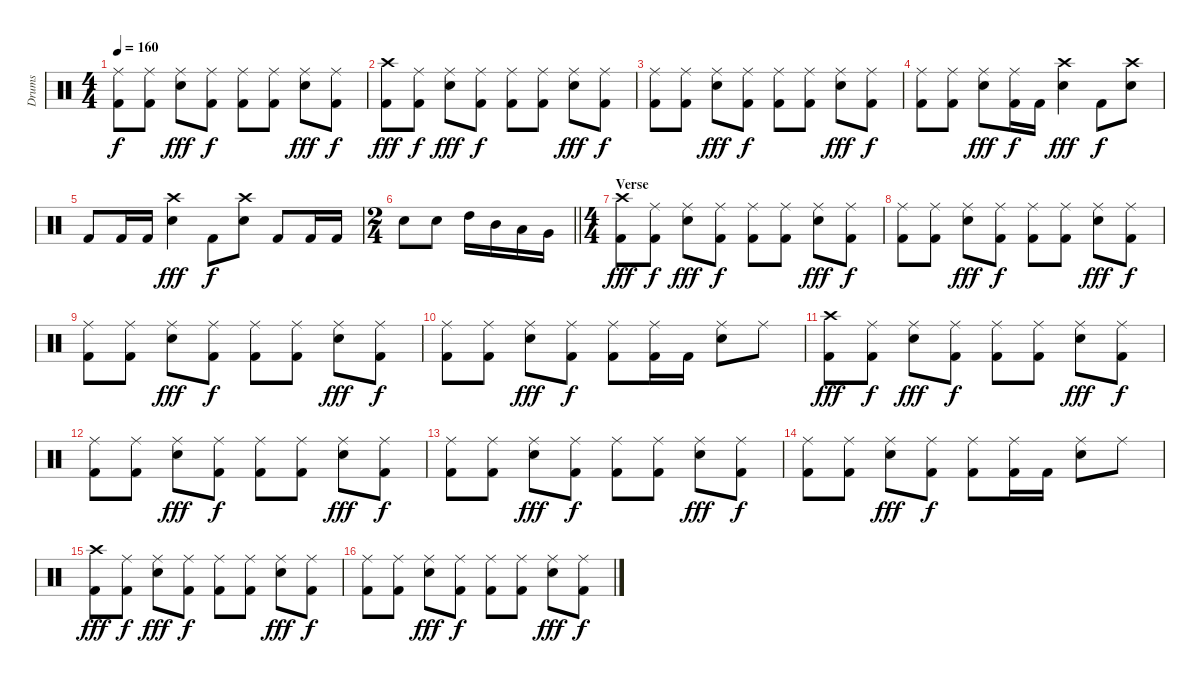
\track ("Drums" "Drums") {instrument percussion}
\staff {score}
\articulation defaults
\ts (4 4)
\tempo 160
\clef neutral
\ks c
("Kick (hit) 2" "Ride (middle)").8{dy f} ("Kick (hit) 2" "Ride (middle)").8 ("Snare (hit) 2" "Ride (middle)").8{dy fff} ("Kick (hit) 2" "Ride (middle)").8{dy f} ("Kick (hit) 2" "Ride (middle)").8 ("Kick (hit) 2" "Ride (middle)").8 ("Snare (hit) 2" "Ride (middle)").8{dy fff} ("Kick (hit) 2" "Ride (middle)").8{dy f} |
("Kick (hit) 2" "Crash high (hit)").8{dy fff} ("Kick (hit) 2" "Ride (middle)").8{dy f} ("Snare (hit) 2" "Ride (middle)").8{dy fff} ("Kick (hit) 2" "Ride (middle)").8{dy f} ("Kick (hit) 2" "Ride (middle)").8 ("Kick (hit) 2" "Ride (middle)").8 ("Snare (hit) 2" "Ride (middle)").8{dy fff} ("Kick (hit) 2" "Ride (middle)").8{dy f} |
("Kick (hit) 2" "Ride (middle)").8 ("Kick (hit) 2" "Ride (middle)").8 ("Snare (hit) 2" "Ride (middle)").8{dy fff} ("Kick (hit) 2" "Ride (middle)").8{dy f} ("Kick (hit) 2" "Ride (middle)").8 ("Kick (hit) 2" "Ride (middle)").8 ("Snare (hit) 2" "Ride (middle)").8{dy fff} ("Kick (hit) 2" "Ride (middle)").8{dy f} |
("Kick (hit) 2" "Ride (middle)").8 ("Kick (hit) 2" "Ride (middle)").8 ("Snare (hit) 2" "Ride (middle)").8{dy fff} ("Kick (hit) 2" "Ride (middle)").16{dy f} "Kick (hit) 2".16 ("Snare (hit) 2" "Crash high (hit)").4{dy fff} "Kick (hit) 2".8{dy f} ("Snare (hit) 2" "Crash high (hit)").8 |
"Kick (hit) 2".8 "Kick (hit) 2".16 "Kick (hit) 2".16 ("Snare (hit) 2" "Crash high (hit)").4{dy fff} "Kick (hit) 2".8{dy f} ("Snare (hit) 2" "Crash high (hit)").8 "Kick (hit) 2".8 "Kick (hit) 2".16 "Kick (hit) 2".16 |
\ts (2 4)
\barLineRight lightlight "Snare (hit) 2".8 "Snare (hit) 2".8 "High Tom (hit)".16 "Mid Tom (hit)".16 "Low Tom (hit)".16 "Very Low Tom (hit)".16
|
\ts (4 4)
\section ("" "Verse")
("Kick (hit) 2" "Crash high (hit)").8{dy fff} ("Kick (hit) 2" "Ride (middle)").8{dy f} ("Snare (hit) 2" "Ride (middle)").8{dy fff} ("Kick (hit) 2" "Ride (middle)").8{dy f} ("Kick (hit) 2" "Ride (middle)").8 ("Kick (hit) 2" "Ride (middle)").8 ("Snare (hit) 2" "Ride (middle)").8{dy fff} ("Kick (hit) 2" "Ride (middle)").8{dy f} |
("Kick (hit) 2" "Ride (middle)").8 ("Kick (hit) 2" "Ride (middle)").8 ("Snare (hit) 2" "Ride (middle)").8{dy fff} ("Kick (hit) 2" "Ride (middle)").8{dy f} ("Kick (hit) 2" "Ride (middle)").8 ("Kick (hit) 2" "Ride (middle)").8 ("Snare (hit) 2" "Ride (middle)").8{dy fff} ("Kick (hit) 2" "Ride (middle)").8{dy f} |
("Kick (hit) 2" "Ride (middle)").8 ("Kick (hit) 2" "Ride (middle)").8 ("Snare (hit) 2" "Ride (middle)").8{dy fff} ("Kick (hit) 2" "Ride (middle)").8{dy f} ("Kick (hit) 2" "Ride (middle)").8 ("Kick (hit) 2" "Ride (middle)").8 ("Snare (hit) 2" "Ride (middle)").8{dy fff} ("Kick (hit) 2" "Ride (middle)").8{dy f} |
("Kick (hit) 2" "Ride (middle)").8 ("Kick (hit) 2" "Ride (middle)").8 ("Snare (hit) 2" "Ride (middle)").8{dy fff} ("Kick (hit) 2" "Ride (middle)").8{dy f} ("Kick (hit) 2" "Ride (middle)").8 ("Kick (hit) 2" "Ride (middle)").16 "Kick (hit) 2".16 ("Snare (hit) 2" "Ride (middle)").8 "Ride (middle)".8 |
("Kick (hit) 2" "Crash high (hit)").8{dy fff} ("Kick (hit) 2" "Ride (middle)").8{dy f} ("Snare (hit) 2" "Ride (middle)").8{dy fff} ("Kick (hit) 2" "Ride (middle)").8{dy f} ("Kick (hit) 2" "Ride (middle)").8 ("Kick (hit) 2" "Ride (middle)").8 ("Snare (hit) 2" "Ride (middle)").8{dy fff} ("Kick (hit) 2" "Ride (middle)").8{dy f} |
("Kick (hit) 2" "Ride (middle)").8 ("Kick (hit) 2" "Ride (middle)").8 ("Snare (hit) 2" "Ride (middle)").8{dy fff} ("Kick (hit) 2" "Ride (middle)").8{dy f} ("Kick (hit) 2" "Ride (middle)").8 ("Kick (hit) 2" "Ride (middle)").8 ("Snare (hit) 2" "Ride (middle)").8{dy fff} ("Kick (hit) 2" "Ride (middle)").8{dy f} |
("Kick (hit) 2" "Ride (middle)").8 ("Kick (hit) 2" "Ride (middle)").8 ("Snare (hit) 2" "Ride (middle)").8{dy fff} ("Kick (hit) 2" "Ride (middle)").8{dy f} ("Kick (hit) 2" "Ride (middle)").8 ("Kick (hit) 2" "Ride (middle)").8 ("Snare (hit) 2" "Ride (middle)").8{dy fff} ("Kick (hit) 2" "Ride (middle)").8{dy f} |
("Kick (hit) 2" "Ride (middle)").8 ("Kick (hit) 2" "Ride (middle)").8 ("Snare (hit) 2" "Ride (middle)").8{dy fff} ("Kick (hit) 2" "Ride (middle)").8{dy f} ("Kick (hit) 2" "Ride (middle)").8 ("Kick (hit) 2" "Ride (middle)").16 "Kick (hit) 2".16 ("Snare (hit) 2" "Ride (middle)").8 "Ride (middle)".8 |
("Kick (hit) 2" "Crash high (hit)").8{dy fff} ("Kick (hit) 2" "Ride (middle)").8{dy f} ("Snare (hit) 2" "Ride (middle)").8{dy fff} ("Kick (hit) 2" "Ride (middle)").8{dy f} ("Kick (hit) 2" "Ride (middle)").8 ("Kick (hit) 2" "Ride (middle)").8 ("Snare (hit) 2" "Ride (middle)").8{dy fff} ("Kick (hit) 2" "Ride (middle)").8{dy f} |
("Kick (hit) 2" "Ride (middle)").8 ("Kick (hit) 2" "Ride (middle)").8 ("Snare (hit) 2" "Ride (middle)").8{dy fff} ("Kick (hit) 2" "Ride (middle)").8{dy f} ("Kick (hit) 2" "Ride (middle)").8 ("Kick (hit) 2" "Ride (middle)").8 ("Snare (hit) 2" "Ride (middle)").8{dy fff} ("Kick (hit) 2" "Ride (middle)").8{dy f}
